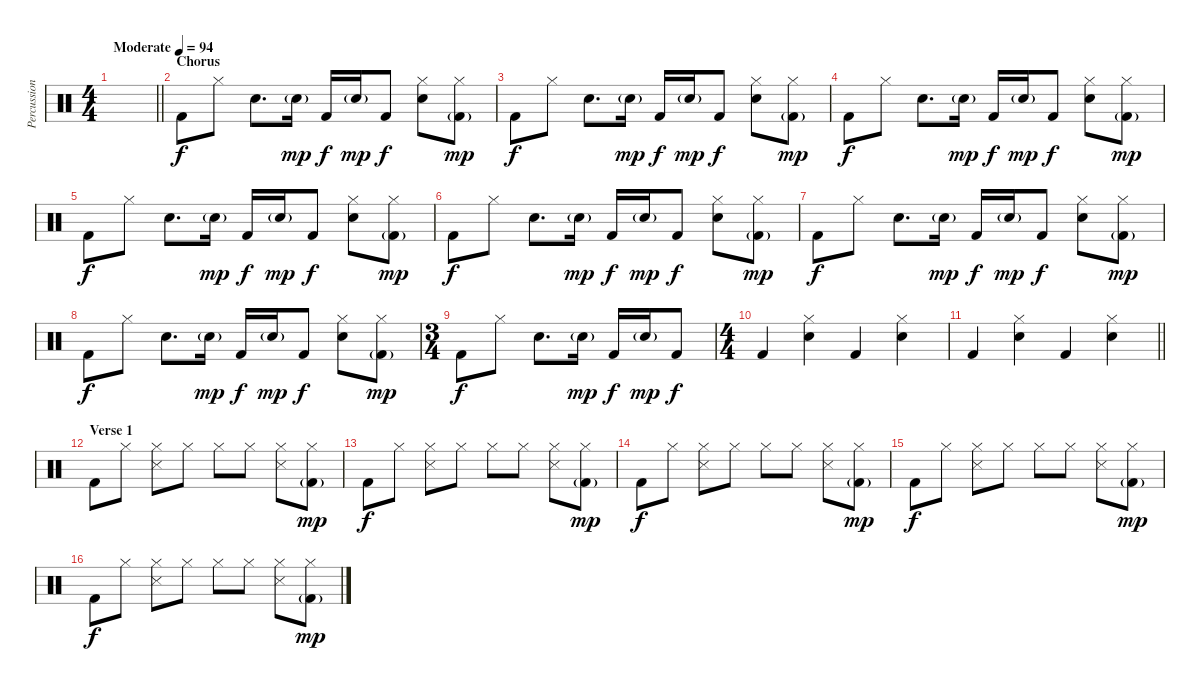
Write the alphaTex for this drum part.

\track ("Percussion" "Percussion") {instrument percussion}
\staff {score}
\articulation defaults
\ts (4 4)
\tempo (94 "Moderate")
\clef neutral
\barLineRight lightlight
\ks c
|
\section ("" "Chorus")
"Kick (hit) 2".8 "Hi-Hat (closed)".8 "Snare (hit) 2".8{d} "Snare (hit) 2"{g}.16{dy mp} "Kick (hit) 2".16{dy f} "Snare (hit) 2"{g}.16{dy mp} "Kick (hit) 2".8{dy f} ("Hi-Hat (closed)" "Snare (hit) 2").8 ("Hi-Hat (closed)" "Kick (hit) 2"{g}).8{dy mp} |
"Kick (hit) 2".8{dy f} "Hi-Hat (closed)".8 "Snare (hit) 2".8{d} "Snare (hit) 2"{g}.16{dy mp} "Kick (hit) 2".16{dy f} "Snare (hit) 2"{g}.16{dy mp} "Kick (hit) 2".8{dy f} ("Hi-Hat (closed)" "Snare (hit) 2").8 ("Hi-Hat (closed)" "Kick (hit) 2"{g}).8{dy mp} |
"Kick (hit) 2".8{dy f} "Hi-Hat (closed)".8 "Snare (hit) 2".8{d} "Snare (hit) 2"{g}.16{dy mp} "Kick (hit) 2".16{dy f} "Snare (hit) 2"{g}.16{dy mp} "Kick (hit) 2".8{dy f} ("Hi-Hat (closed)" "Snare (hit) 2").8 ("Hi-Hat (closed)" "Kick (hit) 2"{g}).8{dy mp} |
"Kick (hit) 2".8{dy f} "Hi-Hat (closed)".8 "Snare (hit) 2".8{d} "Snare (hit) 2"{g}.16{dy mp} "Kick (hit) 2".16{dy f} "Snare (hit) 2"{g}.16{dy mp} "Kick (hit) 2".8{dy f} ("Hi-Hat (closed)" "Snare (hit) 2").8 ("Hi-Hat (closed)" "Kick (hit) 2"{g}).8{dy mp} |
"Kick (hit) 2".8{dy f} "Hi-Hat (closed)".8 "Snare (hit) 2".8{d} "Snare (hit) 2"{g}.16{dy mp} "Kick (hit) 2".16{dy f} "Snare (hit) 2"{g}.16{dy mp} "Kick (hit) 2".8{dy f} ("Hi-Hat (closed)" "Snare (hit) 2").8 ("Hi-Hat (closed)" "Kick (hit) 2"{g}).8{dy mp} |
"Kick (hit) 2".8{dy f} "Hi-Hat (closed)".8 "Snare (hit) 2".8{d} "Snare (hit) 2"{g}.16{dy mp} "Kick (hit) 2".16{dy f} "Snare (hit) 2"{g}.16{dy mp} "Kick (hit) 2".8{dy f} ("Hi-Hat (closed)" "Snare (hit) 2").8 ("Hi-Hat (closed)" "Kick (hit) 2"{g}).8{dy mp} |
"Kick (hit) 2".8{dy f} "Hi-Hat (closed)".8 "Snare (hit) 2".8{d} "Snare (hit) 2"{g}.16{dy mp} "Kick (hit) 2".16{dy f} "Snare (hit) 2"{g}.16{dy mp} "Kick (hit) 2".8{dy f} ("Hi-Hat (closed)" "Snare (hit) 2").8 ("Hi-Hat (closed)" "Kick (hit) 2"{g}).8{dy mp} |
\ts (3 4)
"Kick (hit) 2".8{dy f} "Hi-Hat (closed)".8 "Snare (hit) 2".8{d} "Snare (hit) 2"{g}.16{dy mp} "Kick (hit) 2".16{dy f} "Snare (hit) 2"{g}.16{dy mp} "Kick (hit) 2".8{dy f} |
\ts (4 4)
"Kick (hit) 2".4 ("Hi-Hat (closed)" "Snare (hit) 2").4 "Kick (hit) 2".4 ("Hi-Hat (closed)" "Snare (hit) 2").4 |
\barLineRight lightlight "Kick (hit) 2".4
("Hi-Hat (closed)" "Snare (hit) 2").4 "Kick (hit) 2".4 ("Hi-Hat (closed)" "Snare (hit) 2").4 |
\section ("" "Verse 1")
"Kick (hit) 2".8 "Hi-Hat (closed)".8 ("Hi-Hat (closed)" "Snare (side stick) 3").8 "Hi-Hat (closed)".8 "Hi-Hat (closed)".8 "Hi-Hat (closed)".8 ("Hi-Hat (closed)" "Snare (side stick) 3").8 ("Hi-Hat (closed)" "Kick (hit) 2"{g}).8{dy mp} |
"Kick (hit) 2".8{dy f} "Hi-Hat (closed)".8 ("Hi-Hat (closed)" "Snare (side stick) 3").8 "Hi-Hat (closed)".8 "Hi-Hat (closed)".8 "Hi-Hat (closed)".8 ("Hi-Hat (closed)" "Snare (side stick) 3").8 ("Hi-Hat (closed)" "Kick (hit) 2"{g}).8{dy mp} |
"Kick (hit) 2".8{dy f} "Hi-Hat (closed)".8 ("Hi-Hat (closed)" "Snare (side stick) 3").8 "Hi-Hat (closed)".8 "Hi-Hat (closed)".8 "Hi-Hat (closed)".8 ("Hi-Hat (closed)" "Snare (side stick) 3").8 ("Hi-Hat (closed)" "Kick (hit) 2"{g}).8{dy mp} |
"Kick (hit) 2".8{dy f} "Hi-Hat (closed)".8 ("Hi-Hat (closed)" "Snare (side stick) 3").8 "Hi-Hat (closed)".8 "Hi-Hat (closed)".8 "Hi-Hat (closed)".8 ("Hi-Hat (closed)" "Snare (side stick) 3").8 ("Hi-Hat (closed)" "Kick (hit) 2"{g}).8{dy mp} |
"Kick (hit) 2".8{dy f} "Hi-Hat (closed)".8 ("Hi-Hat (closed)" "Snare (side stick) 3").8 "Hi-Hat (closed)".8 "Hi-Hat (closed)".8 "Hi-Hat (closed)".8 ("Hi-Hat (closed)" "Snare (side stick) 3").8 ("Hi-Hat (closed)" "Kick (hit) 2"{g}).8{dy mp}
